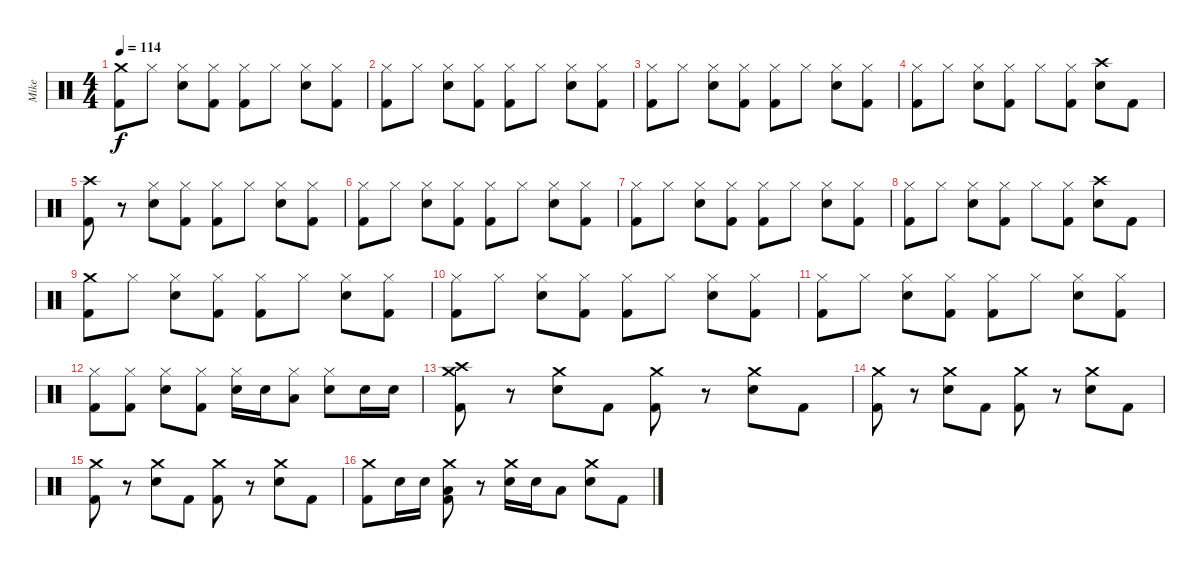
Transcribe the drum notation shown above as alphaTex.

\track ("Mike" "Mike") {instrument percussion}
\staff {score}
\articulation defaults
\ts (4 4)
\tempo 114
\clef neutral
\ks c
("Crash medium (hit)" "Kick (hit) 2").8{dy f} "Hi-Hat (closed)".8 ("Hi-Hat (closed)" "Electric Snare (hit)").8 ("Hi-Hat (closed)" "Kick (hit) 2").8 ("Hi-Hat (closed)" "Kick (hit) 2").8 "Hi-Hat (closed)".8 ("Hi-Hat (closed)" "Electric Snare (hit)").8 ("Hi-Hat (closed)" "Kick (hit) 2").8 |
("Hi-Hat (closed)" "Kick (hit) 2").8 "Hi-Hat (closed)".8 ("Hi-Hat (closed)" "Electric Snare (hit)").8 ("Hi-Hat (closed)" "Kick (hit) 2").8 ("Hi-Hat (closed)" "Kick (hit) 2").8 "Hi-Hat (closed)".8 ("Hi-Hat (closed)" "Electric Snare (hit)").8 ("Hi-Hat (closed)" "Kick (hit) 2").8 |
("Hi-Hat (closed)" "Kick (hit) 2").8 "Hi-Hat (closed)".8 ("Hi-Hat (closed)" "Electric Snare (hit)").8 ("Hi-Hat (closed)" "Kick (hit) 2").8 ("Hi-Hat (closed)" "Kick (hit) 2").8 "Hi-Hat (closed)".8 ("Hi-Hat (closed)" "Electric Snare (hit)").8 ("Hi-Hat (closed)" "Kick (hit) 2").8 |
("Hi-Hat (closed)" "Kick (hit) 2").8 "Hi-Hat (closed)".8 ("Hi-Hat (closed)" "Electric Snare (hit)").8 ("Hi-Hat (closed)" "Kick (hit) 2").8 "Hi-Hat (closed)".8 ("Hi-Hat (closed)" "Kick (hit) 2").8 ("Crash high (hit)" "Electric Snare (hit)").8 "Kick (hit) 2".8 |
("Crash high (hit)" "Kick (hit) 2").8 r.8 ("Hi-Hat (closed)" "Electric Snare (hit)").8 ("Hi-Hat (closed)" "Kick (hit) 2").8 ("Hi-Hat (closed)" "Kick (hit) 2").8 "Hi-Hat (closed)".8 ("Hi-Hat (closed)" "Electric Snare (hit)").8 ("Hi-Hat (closed)" "Kick (hit) 2").8 |
("Hi-Hat (closed)" "Kick (hit) 2").8 "Hi-Hat (closed)".8 ("Hi-Hat (closed)" "Electric Snare (hit)").8 ("Hi-Hat (closed)" "Kick (hit) 2").8 ("Hi-Hat (closed)" "Kick (hit) 2").8 "Hi-Hat (closed)".8 ("Hi-Hat (closed)" "Electric Snare (hit)").8 ("Hi-Hat (closed)" "Kick (hit) 2").8 |
("Hi-Hat (closed)" "Kick (hit) 2").8 "Hi-Hat (closed)".8 ("Hi-Hat (closed)" "Electric Snare (hit)").8 ("Hi-Hat (closed)" "Kick (hit) 2").8 ("Hi-Hat (closed)" "Kick (hit) 2").8 "Hi-Hat (closed)".8 ("Hi-Hat (closed)" "Electric Snare (hit)").8 ("Hi-Hat (closed)" "Kick (hit) 2").8 |
("Hi-Hat (closed)" "Kick (hit) 2").8 "Hi-Hat (closed)".8 ("Hi-Hat (closed)" "Electric Snare (hit)").8 ("Hi-Hat (closed)" "Kick (hit) 2").8 "Hi-Hat (closed)".8 ("Hi-Hat (closed)" "Kick (hit) 2").8 ("Crash high (hit)" "Electric Snare (hit)").8 "Kick (hit) 2".8 |
("Crash medium (hit)" "Kick (hit) 2").8 "Hi-Hat (closed)".8 ("Hi-Hat (closed)" "Electric Snare (hit)").8 ("Hi-Hat (closed)" "Kick (hit) 2").8 ("Hi-Hat (closed)" "Kick (hit) 2").8 "Hi-Hat (closed)".8 ("Hi-Hat (closed)" "Electric Snare (hit)").8 ("Hi-Hat (closed)" "Kick (hit) 2").8 |
("Hi-Hat (closed)" "Kick (hit) 2").8 "Hi-Hat (closed)".8 ("Hi-Hat (closed)" "Electric Snare (hit)").8 ("Hi-Hat (closed)" "Kick (hit) 2").8 ("Hi-Hat (closed)" "Kick (hit) 2").8 "Hi-Hat (closed)".8 ("Hi-Hat (closed)" "Electric Snare (hit)").8 ("Hi-Hat (closed)" "Kick (hit) 2").8 |
("Hi-Hat (closed)" "Kick (hit) 2").8 "Hi-Hat (closed)".8 ("Hi-Hat (closed)" "Electric Snare (hit)").8 ("Hi-Hat (closed)" "Kick (hit) 2").8 ("Hi-Hat (closed)" "Kick (hit) 2").8 "Hi-Hat (closed)".8 ("Hi-Hat (closed)" "Electric Snare (hit)").8 ("Hi-Hat (closed)" "Kick (hit) 2").8 |
("Hi-Hat (closed)" "Kick (hit) 2").8 ("Hi-Hat (closed)" "Kick (hit) 2").8 ("Hi-Hat (closed)" "Electric Snare (hit)").8 ("Hi-Hat (closed)" "Kick (hit) 2").8 ("Hi-Hat (closed)" "Electric Snare (hit)").16 "Electric Snare (hit)".16 ("Hi-Hat (closed)" "Low Tom (hit)").8 ("Hi-Hat (closed)" "Electric Snare (hit)").8 "Electric Snare (hit)".16 "Electric Snare (hit)".16 |
("Crash high (hit)" "Crash medium (hit)" "Kick (hit) 2").8 r.8 ("Crash medium (hit)" "Electric Snare (hit)").8 "Kick (hit) 2".8 ("Crash medium (hit)" "Kick (hit) 2").8 r.8 ("Crash medium (hit)" "Electric Snare (hit)").8 "Kick (hit) 2".8 |
("Crash medium (hit)" "Kick (hit) 2").8 r.8 ("Crash medium (hit)" "Electric Snare (hit)").8 "Kick (hit) 2".8 ("Crash medium (hit)" "Kick (hit) 2").8 r.8 ("Crash medium (hit)" "Electric Snare (hit)").8 "Kick (hit) 2".8 |
("Crash medium (hit)" "Kick (hit) 2").8 r.8 ("Crash medium (hit)" "Electric Snare (hit)").8 "Kick (hit) 2".8 ("Crash medium (hit)" "Kick (hit) 2").8 r.8 ("Crash medium (hit)" "Electric Snare (hit)").8 "Kick (hit) 2".8 |
("Crash medium (hit)" "Kick (hit) 2").8 "Electric Snare (hit)".16 "Electric Snare (hit)".16 ("Crash medium (hit)" "Low Tom (hit)" "Kick (hit) 2").8 r.8 ("Crash medium (hit)" "Electric Snare (hit)").16 "Electric Snare (hit)".16 "Low Tom (hit)".8 ("Crash medium (hit)" "Electric Snare (hit)").8 "Kick (hit) 2".8
